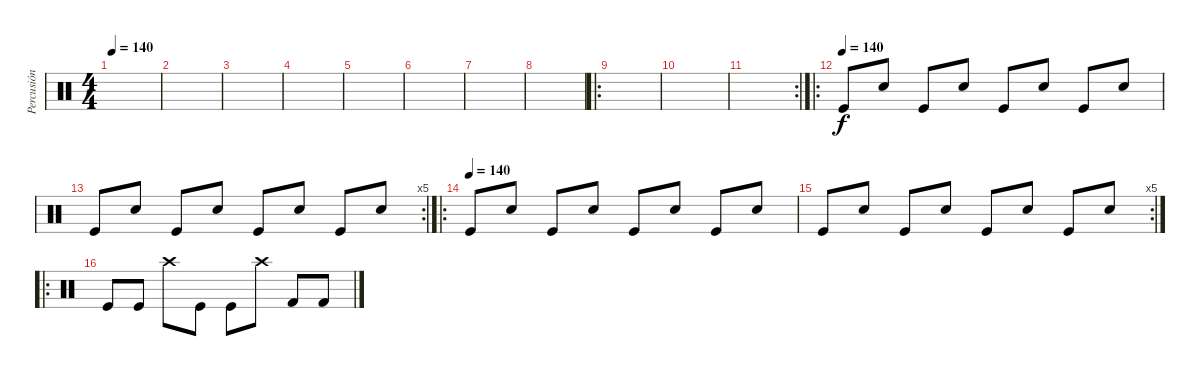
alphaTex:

\track ("Percusión" "Percusión") {instrument percussion}
\staff {score}
\articulation defaults
\ts (4 4)
\tempo 140
\clef neutral
\ks c
|
|
|
|
|
|
|
|
\ro
|
|
\rc 2
|
\ro
\tempo (140)
"Kick (hit)".8 "Snare (hit) 2".8 "Kick (hit)".8 "Snare (hit) 2".8 "Kick (hit)".8 "Snare (hit) 2".8 "Kick (hit)".8 "Snare (hit) 2".8 |
\rc 5 "Kick (hit)".8 "Snare (hit) 2".8 "Kick (hit)".8 "Snare (hit) 2".8 "Kick (hit)".8 "Snare (hit) 2".8 "Kick (hit)".8 "Snare (hit) 2".8
|
\ro
\tempo (140)
"Kick (hit)".8 "Snare (hit) 2".8 "Kick (hit)".8 "Snare (hit) 2".8 "Kick (hit)".8 "Snare (hit) 2".8 "Kick (hit)".8 "Snare (hit) 2".8 |
\rc 5 "Kick (hit)".8 "Snare (hit) 2".8 "Kick (hit)".8 "Snare (hit) 2".8 "Kick (hit)".8 "Snare (hit) 2".8 "Kick (hit)".8 "Snare (hit) 2".8
|
\ro "Kick (hit)".8 "Kick (hit)".8 "Crash high (hit)".8 "Kick (hit)".8 "Kick (hit)".8 "Crash high (hit)".8 "Kick (hit) 2".8 "Kick (hit) 2".8
